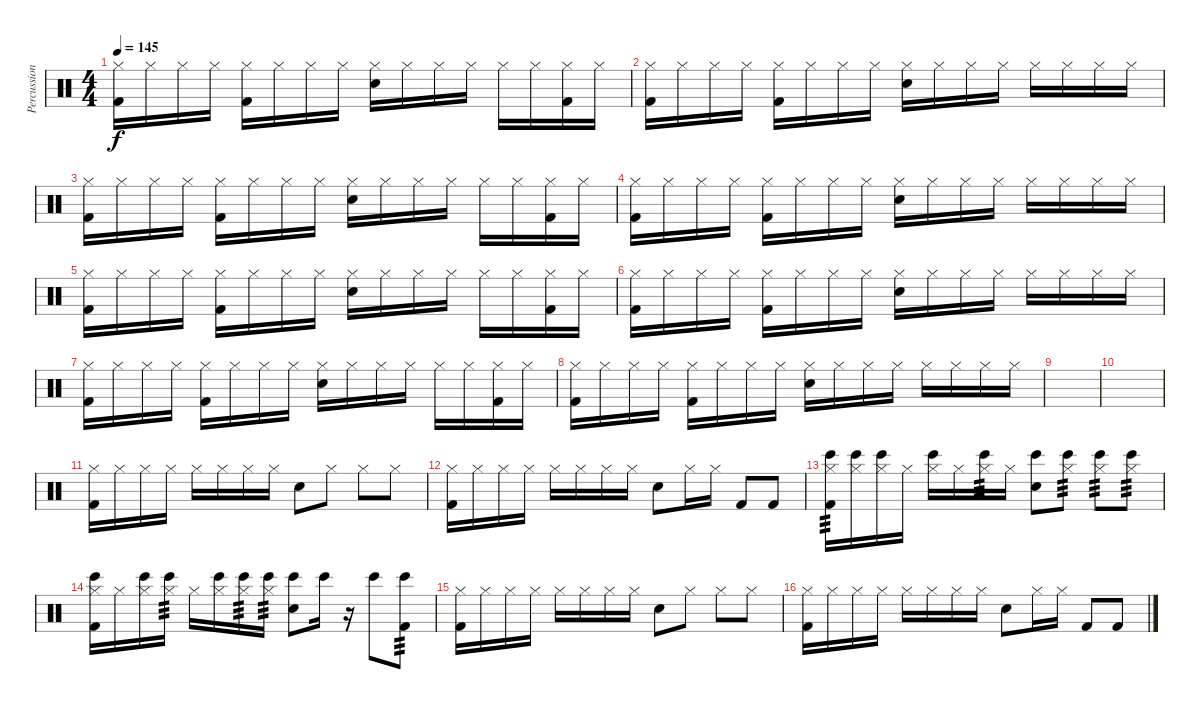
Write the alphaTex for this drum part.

\track ("Percussion" "Percussion") {instrument percussion}
\staff {score}
\articulation defaults
\ts (4 4)
\tempo 145
\clef neutral
\ks c
("Hi-Hat (closed)" "Kick (hit) 2").16{dy f} "Hi-Hat (closed)".16 "Hi-Hat (closed)".16 "Hi-Hat (closed)".16 ("Hi-Hat (closed)" "Kick (hit) 2").16 "Hi-Hat (closed)".16 "Hi-Hat (closed)".16 "Hi-Hat (closed)".16 ("Hi-Hat (closed)" "Hand Clap (hit)").16 "Hi-Hat (closed)".16 "Hi-Hat (closed)".16 "Hi-Hat (closed)".16 "Hi-Hat (closed)".16 "Hi-Hat (closed)".16 ("Hi-Hat (closed)" "Kick (hit) 2").16 "Hi-Hat (closed)".16 |
("Hi-Hat (closed)" "Kick (hit) 2").16 "Hi-Hat (closed)".16 "Hi-Hat (closed)".16 "Hi-Hat (closed)".16 ("Hi-Hat (closed)" "Kick (hit) 2").16 "Hi-Hat (closed)".16 "Hi-Hat (closed)".16 "Hi-Hat (closed)".16 ("Hi-Hat (closed)" "Hand Clap (hit)").16 "Hi-Hat (closed)".16 "Hi-Hat (closed)".16 "Hi-Hat (closed)".16 "Hi-Hat (closed)".16 "Hi-Hat (closed)".16 "Hi-Hat (closed)".16 "Hi-Hat (closed)".16 |
("Hi-Hat (closed)" "Kick (hit) 2").16 "Hi-Hat (closed)".16 "Hi-Hat (closed)".16 "Hi-Hat (closed)".16 ("Hi-Hat (closed)" "Kick (hit) 2").16 "Hi-Hat (closed)".16 "Hi-Hat (closed)".16 "Hi-Hat (closed)".16 ("Hi-Hat (closed)" "Hand Clap (hit)").16 "Hi-Hat (closed)".16 "Hi-Hat (closed)".16 "Hi-Hat (closed)".16 "Hi-Hat (closed)".16 "Hi-Hat (closed)".16 ("Hi-Hat (closed)" "Kick (hit) 2").16 "Hi-Hat (closed)".16 |
("Hi-Hat (closed)" "Kick (hit) 2").16 "Hi-Hat (closed)".16 "Hi-Hat (closed)".16 "Hi-Hat (closed)".16 ("Hi-Hat (closed)" "Kick (hit) 2").16 "Hi-Hat (closed)".16 "Hi-Hat (closed)".16 "Hi-Hat (closed)".16 ("Hi-Hat (closed)" "Hand Clap (hit)").16 "Hi-Hat (closed)".16 "Hi-Hat (closed)".16 "Hi-Hat (closed)".16 "Hi-Hat (closed)".16 "Hi-Hat (closed)".16 "Hi-Hat (closed)".16 "Hi-Hat (closed)".16 |
("Hi-Hat (closed)" "Kick (hit) 2").16 "Hi-Hat (closed)".16 "Hi-Hat (closed)".16 "Hi-Hat (closed)".16 ("Hi-Hat (closed)" "Kick (hit) 2").16 "Hi-Hat (closed)".16 "Hi-Hat (closed)".16 "Hi-Hat (closed)".16 ("Hi-Hat (closed)" "Hand Clap (hit)").16 "Hi-Hat (closed)".16 "Hi-Hat (closed)".16 "Hi-Hat (closed)".16 "Hi-Hat (closed)".16 "Hi-Hat (closed)".16 ("Hi-Hat (closed)" "Kick (hit) 2").16 "Hi-Hat (closed)".16 |
("Hi-Hat (closed)" "Kick (hit) 2").16 "Hi-Hat (closed)".16 "Hi-Hat (closed)".16 "Hi-Hat (closed)".16 ("Hi-Hat (closed)" "Kick (hit) 2").16 "Hi-Hat (closed)".16 "Hi-Hat (closed)".16 "Hi-Hat (closed)".16 ("Hi-Hat (closed)" "Hand Clap (hit)").16 "Hi-Hat (closed)".16 "Hi-Hat (closed)".16 "Hi-Hat (closed)".16 "Hi-Hat (closed)".16 "Hi-Hat (closed)".16 "Hi-Hat (closed)".16 "Hi-Hat (closed)".16 |
("Hi-Hat (closed)" "Kick (hit) 2").16 "Hi-Hat (closed)".16 "Hi-Hat (closed)".16 "Hi-Hat (closed)".16 ("Hi-Hat (closed)" "Kick (hit) 2").16 "Hi-Hat (closed)".16 "Hi-Hat (closed)".16 "Hi-Hat (closed)".16 ("Hi-Hat (closed)" "Hand Clap (hit)").16 "Hi-Hat (closed)".16 "Hi-Hat (closed)".16 "Hi-Hat (closed)".16 "Hi-Hat (closed)".16 "Hi-Hat (closed)".16 ("Hi-Hat (closed)" "Kick (hit) 2").16 "Hi-Hat (closed)".16 |
("Hi-Hat (closed)" "Kick (hit) 2").16 "Hi-Hat (closed)".16 "Hi-Hat (closed)".16 "Hi-Hat (closed)".16 ("Hi-Hat (closed)" "Kick (hit) 2").16 "Hi-Hat (closed)".16 "Hi-Hat (closed)".16 "Hi-Hat (closed)".16 ("Hi-Hat (closed)" "Hand Clap (hit)").16 "Hi-Hat (closed)".16 "Hi-Hat (closed)".16 "Hi-Hat (closed)".16 "Hi-Hat (closed)".16 "Hi-Hat (closed)".16 "Hi-Hat (closed)".16 "Hi-Hat (closed)".16 |
|
|
("Hi-Hat (closed)" "Kick (hit) 2").16 "Hi-Hat (closed)".16 "Hi-Hat (closed)".16 "Hi-Hat (closed)".16 "Hi-Hat (closed)".16 "Hi-Hat (closed)".16 "Hi-Hat (closed)".16 "Hi-Hat (closed)".16 "Hand Clap (hit)".8 "Hi-Hat (closed)".8 "Hi-Hat (closed)".8 "Hi-Hat (closed)".8 |
("Hi-Hat (closed)" "Kick (hit) 2").16 "Hi-Hat (closed)".16 "Hi-Hat (closed)".16 "Hi-Hat (closed)".16 "Hi-Hat (closed)".16 "Hi-Hat (closed)".16 "Hi-Hat (closed)".16 "Hi-Hat (closed)".16 "Hand Clap (hit)".8 "Hi-Hat (closed)".16 "Hi-Hat (closed)".16 "Kick (hit) 2".8 "Kick (hit) 2".8 |
("Hi-Hat (closed)" "Bongo High (hit)" "Kick (hit) 2").16{tp 3} ("Hi-Hat (closed)" "Bongo High (hit)").16 ("Hi-Hat (closed)" "Bongo High (hit)").16 "Hi-Hat (closed)".16 ("Hi-Hat (closed)" "Bongo High (hit)").16 "Hi-Hat (closed)".16 ("Hi-Hat (closed)" "Bongo High (hit)").16{tp 3} "Hi-Hat (closed)".16 ("Hand Clap (hit)" "Bongo High (hit)").8 ("Hi-Hat (closed)" "Bongo High (hit)").8{tp 3} ("Hi-Hat (closed)" "Bongo High (hit)").8{tp 3} ("Hi-Hat (closed)" "Bongo High (hit)").8{tp 3} |
("Hi-Hat (closed)" "Bongo High (hit)" "Kick (hit) 2").16 "Hi-Hat (closed)".16 ("Hi-Hat (closed)" "Bongo High (hit)").16 ("Hi-Hat (closed)" "Bongo High (hit)").16{tp 3} "Hi-Hat (closed)".16 ("Hi-Hat (closed)" "Bongo High (hit)").16 ("Hi-Hat (closed)" "Bongo High (hit)").16{tp 3} ("Hi-Hat (closed)" "Bongo High (hit)").16{tp 3} ("Hand Clap (hit)" "Bongo High (hit)").8 "Bongo High (hit)".16 r.16 "Bongo High (hit)".8 ("Bongo High (hit)" "Kick (hit) 2").8{tp 3} |
("Hi-Hat (closed)" "Kick (hit) 2").16 "Hi-Hat (closed)".16 "Hi-Hat (closed)".16 "Hi-Hat (closed)".16 "Hi-Hat (closed)".16 "Hi-Hat (closed)".16 "Hi-Hat (closed)".16 "Hi-Hat (closed)".16 "Hand Clap (hit)".8 "Hi-Hat (closed)".8 "Hi-Hat (closed)".8 "Hi-Hat (closed)".8 |
("Hi-Hat (closed)" "Kick (hit) 2").16 "Hi-Hat (closed)".16 "Hi-Hat (closed)".16 "Hi-Hat (closed)".16 "Hi-Hat (closed)".16 "Hi-Hat (closed)".16 "Hi-Hat (closed)".16 "Hi-Hat (closed)".16 "Hand Clap (hit)".8 "Hi-Hat (closed)".16 "Hi-Hat (closed)".16 "Kick (hit) 2".8 "Kick (hit) 2".8
